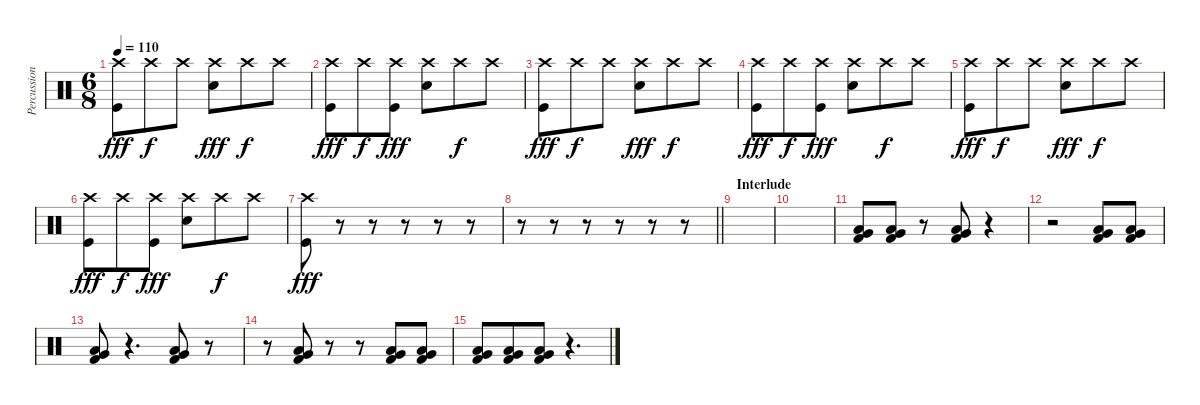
\track ("Percussion" "Percussion") {instrument percussion}
\staff {score}
\articulation defaults
\ts (6 8)
\tempo 110
\clef neutral
\ks c
("Crash high (hit)" "Kick (hit)").8{dy fff} "Crash high (hit)".8{dy f} "Crash high (hit)".8 ("Crash high (hit)" "Electric Snare (hit)").8{dy fff} "Crash high (hit)".8{dy f} "Crash high (hit)".8 |
("Crash high (hit)" "Kick (hit)").8{dy fff} "Crash high (hit)".8{dy f} ("Crash high (hit)" "Kick (hit)").8{dy fff} ("Crash high (hit)" "Electric Snare (hit)").8 "Crash high (hit)".8{dy f} "Crash high (hit)".8 |
("Crash high (hit)" "Kick (hit)").8{dy fff} "Crash high (hit)".8{dy f} "Crash high (hit)".8 ("Crash high (hit)" "Electric Snare (hit)").8{dy fff} "Crash high (hit)".8{dy f} "Crash high (hit)".8 |
("Crash high (hit)" "Kick (hit)").8{dy fff} "Crash high (hit)".8{dy f} ("Crash high (hit)" "Kick (hit)").8{dy fff} ("Crash high (hit)" "Electric Snare (hit)").8 "Crash high (hit)".8{dy f} "Crash high (hit)".8 |
("Crash high (hit)" "Kick (hit)").8{dy fff} "Crash high (hit)".8{dy f} "Crash high (hit)".8 ("Crash high (hit)" "Electric Snare (hit)").8{dy fff} "Crash high (hit)".8{dy f} "Crash high (hit)".8 |
("Crash high (hit)" "Kick (hit)").8{dy fff} "Crash high (hit)".8{dy f} ("Crash high (hit)" "Kick (hit)").8{dy fff} ("Crash high (hit)" "Electric Snare (hit)").8 "Crash high (hit)".8{dy f} "Crash high (hit)".8 |
("Crash high (hit)" "Kick (hit)").8{dy fff} r.8 r.8 r.8 r.8 r.8 |
\barLineRight lightlight
r.8 r.8 r.8 r.8 r.8 r.8 |
\section ("" "Interlude")
|
|
("Low Floor Tom (hit)" "Very Low Tom (hit)" "Kick (hit) 2").8 ("Low Floor Tom (hit)" "Very Low Tom (hit)" "Kick (hit) 2").8 r.8 ("Low Floor Tom (hit)" "Very Low Tom (hit)" "Kick (hit) 2").8 r.4 |
r.2 ("Low Floor Tom (hit)" "Very Low Tom (hit)" "Kick (hit) 2").8 ("Low Floor Tom (hit)" "Very Low Tom (hit)" "Kick (hit) 2").8 |
("Low Floor Tom (hit)" "Very Low Tom (hit)" "Kick (hit) 2").8 r.4{d} ("Low Floor Tom (hit)" "Very Low Tom (hit)" "Kick (hit) 2").8 r.8 |
r.8 ("Low Floor Tom (hit)" "Very Low Tom (hit)" "Kick (hit) 2").8 r.8 r.8 ("Low Floor Tom (hit)" "Very Low Tom (hit)" "Kick (hit) 2").8 ("Low Floor Tom (hit)" "Very Low Tom (hit)" "Kick (hit) 2").8 |
("Low Floor Tom (hit)" "Very Low Tom (hit)" "Kick (hit) 2").8 ("Low Floor Tom (hit)" "Very Low Tom (hit)" "Kick (hit) 2").8 ("Low Floor Tom (hit)" "Very Low Tom (hit)" "Kick (hit) 2").8 r.4{d}
